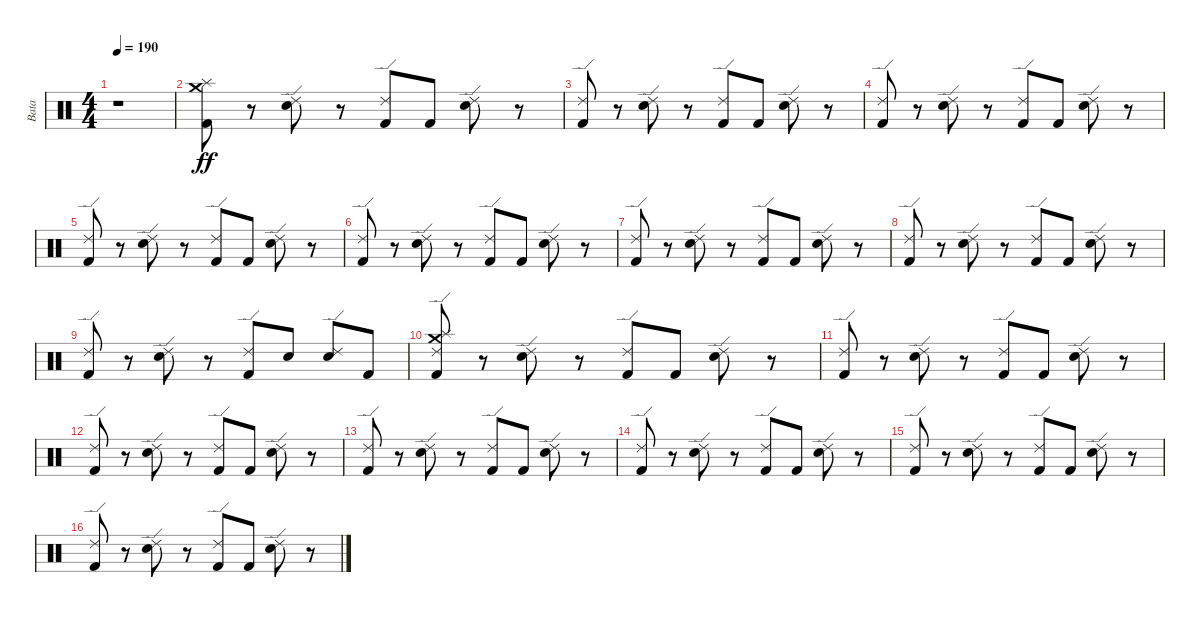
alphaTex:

\track ("Bata" "Bata") {instrument percussion}
\staff {score}
\articulation defaults
\ts (4 4)
\tempo 190
\clef neutral
\ks c
r.1{dy ff} |
("Kick (hit) 2" "Splash (hit)" "Crash medium (hit)").8 r.8 ("Snare (hit) 2" "Ride (edge) 2").8 r.8 ("Ride (edge) 2" "Kick (hit) 2").8 "Kick (hit) 2".8 ("Snare (hit) 2" "Ride (edge) 2").8 r.8 |
("Kick (hit) 2" "Ride (edge) 2").8 r.8 ("Ride (edge) 2" "Snare (hit) 2").8 r.8 ("Ride (edge) 2" "Kick (hit) 2").8 "Kick (hit) 2".8 ("Snare (hit) 2" "Ride (edge) 2").8 r.8 |
("Ride (edge) 2" "Kick (hit) 2").8 r.8 ("Ride (edge) 2" "Snare (hit) 2").8 r.8 ("Kick (hit) 2" "Ride (edge) 2").8 "Kick (hit) 2".8 ("Snare (hit) 2" "Ride (edge) 2").8 r.8 |
("Ride (edge) 2" "Kick (hit) 2").8 r.8 ("Snare (hit) 2" "Ride (edge) 2").8 r.8 ("Kick (hit) 2" "Ride (edge) 2").8 "Kick (hit) 2".8 ("Ride (edge) 2" "Snare (hit) 2").8 r.8 |
("Ride (edge) 2" "Kick (hit) 2").8 r.8 ("Snare (hit) 2" "Ride (edge) 2").8 r.8 ("Kick (hit) 2" "Ride (edge) 2").8 "Kick (hit) 2".8 ("Ride (edge) 2" "Snare (hit) 2").8 r.8 |
("Kick (hit) 2" "Ride (edge) 2").8 r.8 ("Snare (hit) 2" "Ride (edge) 2").8 r.8 ("Ride (edge) 2" "Kick (hit) 2").8 "Kick (hit) 2".8 ("Ride (edge) 2" "Snare (hit) 2").8 r.8 |
("Kick (hit) 2" "Ride (edge) 2").8 r.8 ("Ride (edge) 2" "Snare (hit) 2").8 r.8 ("Ride (edge) 2" "Kick (hit) 2").8 "Kick (hit) 2".8 ("Snare (hit) 2" "Ride (edge) 2").8 r.8 |
("Kick (hit) 2" "Ride (edge) 2").8 r.8 ("Ride (edge) 2" "Snare (hit) 2").8 r.8 ("Kick (hit) 2" "Ride (edge) 2").8 "Snare (hit) 2".8 ("Snare (hit) 2" "Ride (edge) 2").8 "Kick (hit) 2".8 |
("Splash (hit)" "Crash medium (hit)" "Ride (edge) 2" "Kick (hit) 2").8 r.8 ("Ride (edge) 2" "Snare (hit) 2").8 r.8 ("Kick (hit) 2" "Ride (edge) 2").8 "Kick (hit) 2".8 ("Ride (edge) 2" "Snare (hit) 2").8 r.8 |
("Ride (edge) 2" "Kick (hit) 2").8 r.8 ("Snare (hit) 2" "Ride (edge) 2").8 r.8 ("Kick (hit) 2" "Ride (edge) 2").8 "Kick (hit) 2".8 ("Ride (edge) 2" "Snare (hit) 2").8 r.8 |
("Ride (edge) 2" "Kick (hit) 2").8 r.8 ("Snare (hit) 2" "Ride (edge) 2").8 r.8 ("Ride (edge) 2" "Kick (hit) 2").8 "Kick (hit) 2".8 ("Ride (edge) 2" "Snare (hit) 2").8 r.8 |
("Kick (hit) 2" "Ride (edge) 2").8 r.8 ("Snare (hit) 2" "Ride (edge) 2").8 r.8 ("Ride (edge) 2" "Kick (hit) 2").8 "Kick (hit) 2".8 ("Snare (hit) 2" "Ride (edge) 2").8 r.8 |
("Kick (hit) 2" "Ride (edge) 2").8 r.8 ("Ride (edge) 2" "Snare (hit) 2").8 r.8 ("Ride (edge) 2" "Kick (hit) 2").8 "Kick (hit) 2".8 ("Snare (hit) 2" "Ride (edge) 2").8 r.8 |
("Ride (edge) 2" "Kick (hit) 2").8 r.8 ("Ride (edge) 2" "Snare (hit) 2").8 r.8 ("Kick (hit) 2" "Ride (edge) 2").8 "Kick (hit) 2".8 ("Snare (hit) 2" "Ride (edge) 2").8 r.8 |
("Ride (edge) 2" "Kick (hit) 2").8 r.8 ("Ride (edge) 2" "Snare (hit) 2").8 r.8 ("Kick (hit) 2" "Ride (edge) 2").8 "Kick (hit) 2".8 ("Ride (edge) 2" "Snare (hit) 2").8 r.8
